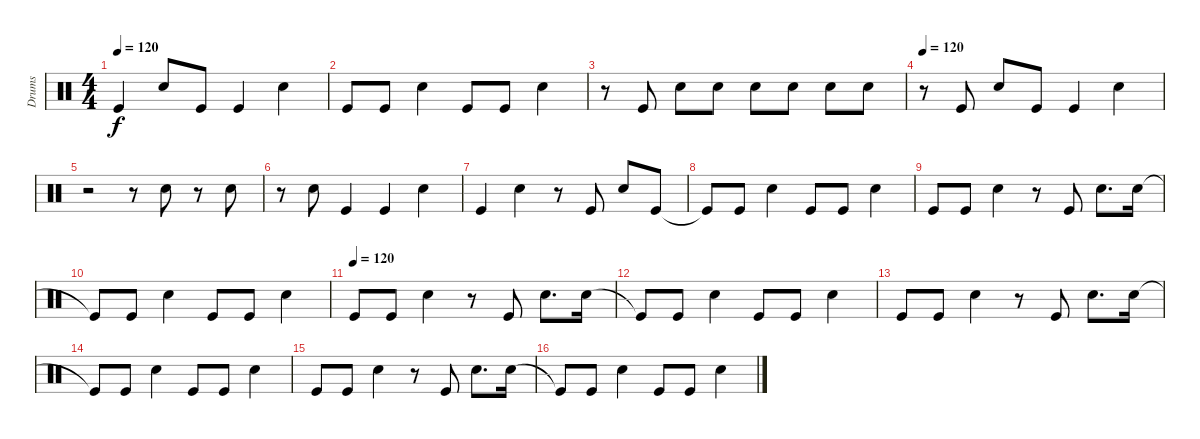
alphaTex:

\track ("Drums" "Drums") {instrument percussion}
\staff {score}
\articulation defaults
\ts (4 4)
\tempo 120
\clef neutral
\ks c "Kick (hit)".4{dy f} "Snare (hit) 2".8 "Kick (hit)".8 "Kick (hit)".4 "Snare (hit) 2".4
|
"Kick (hit)".8 "Kick (hit)".8 "Snare (hit) 2".4 "Kick (hit)".8 "Kick (hit)".8 "Snare (hit) 2".4 |
r.8 "Kick (hit)".8 "Snare (hit) 2".8 "Snare (hit) 2".8 "Snare (hit) 2".8 "Snare (hit) 2".8 "Snare (hit) 2".8 "Snare (hit) 2".8 |
\tempo 120
r.8 "Kick (hit)".8 "Snare (hit) 2".8 "Kick (hit)".8 "Kick (hit)".4 "Snare (hit) 2".4 |
r.2 r.8 "Snare (hit) 2".8 r.8 "Snare (hit) 2".8 |
r.8 "Snare (hit) 2".8 "Kick (hit)".4 "Kick (hit)".4 "Snare (hit) 2".4 |
"Kick (hit)".4 "Snare (hit) 2".4 r.8 "Kick (hit)".8 "Snare (hit) 2".8 "Kick (hit)".8 |
"Kick (hit)"{t}.8 "Kick (hit)".8 "Snare (hit) 2".4 "Kick (hit)".8 "Kick (hit)".8 "Snare (hit) 2".4 |
"Kick (hit)".8 "Kick (hit)".8 "Snare (hit) 2".4 r.8 "Kick (hit)".8 "Snare (hit) 2".8{d} "Snare (hit) 2".16 |
"Kick (hit)"{t}.8 "Kick (hit)".8 "Snare (hit) 2".4 "Kick (hit)".8 "Kick (hit)".8 "Snare (hit) 2".4 |
\tempo (120)
"Kick (hit)".8 "Kick (hit)".8 "Snare (hit) 2".4 r.8 "Kick (hit)".8 "Snare (hit) 2".8{d} "Snare (hit) 2".16 |
"Kick (hit)"{t}.8 "Kick (hit)".8 "Snare (hit) 2".4 "Kick (hit)".8 "Kick (hit)".8 "Snare (hit) 2".4 |
"Kick (hit)".8 "Kick (hit)".8 "Snare (hit) 2".4 r.8 "Kick (hit)".8 "Snare (hit) 2".8{d} "Snare (hit) 2".16 |
"Kick (hit)"{t}.8 "Kick (hit)".8 "Snare (hit) 2".4 "Kick (hit)".8 "Kick (hit)".8 "Snare (hit) 2".4 |
"Kick (hit)".8 "Kick (hit)".8 "Snare (hit) 2".4 r.8 "Kick (hit)".8 "Snare (hit) 2".8{d} "Snare (hit) 2".16 |
"Kick (hit)"{t}.8 "Kick (hit)".8 "Snare (hit) 2".4 "Kick (hit)".8 "Kick (hit)".8 "Snare (hit) 2".4
